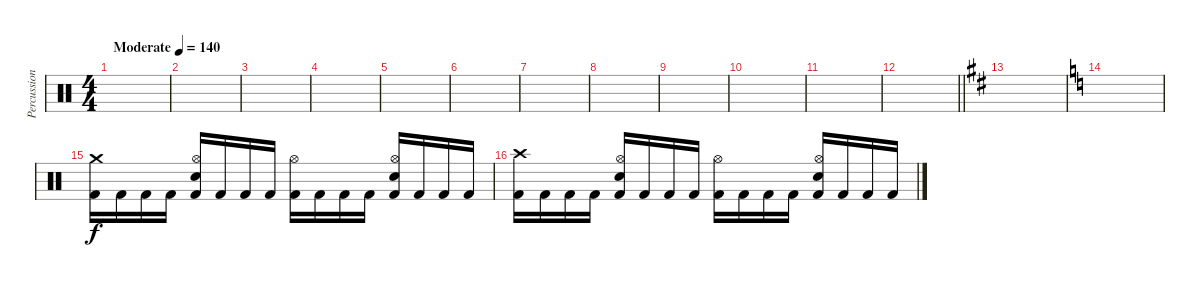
\track ("Percussion" "Percussion") {instrument percussion}
\staff {score}
\articulation defaults
\ts (4 4)
\tempo (140 "Moderate")
\clef neutral
\ks c
|
|
|
|
|
|
|
|
|
|
|
\barLineRight lightlight
|
\ks d
|
\ks c
|
("Crash medium (hit)" "Kick (hit) 2").16 "Kick (hit) 2".16 "Kick (hit) 2".16 "Kick (hit) 2".16 ("Hi-Hat (open)" "Electric Snare (hit)" "Kick (hit) 2").16 "Kick (hit) 2".16 "Kick (hit) 2".16 "Kick (hit) 2".16 ("Hi-Hat (open)" "Kick (hit) 2").16 "Kick (hit) 2".16 "Kick (hit) 2".16 "Kick (hit) 2".16 ("Hi-Hat (open)" "Electric Snare (hit)" "Kick (hit) 2").16 "Kick (hit) 2".16 "Kick (hit) 2".16 "Kick (hit) 2".16 |
("Crash high (hit)" "Kick (hit) 2").16 "Kick (hit) 2".16 "Kick (hit) 2".16 "Kick (hit) 2".16 ("Hi-Hat (open)" "Electric Snare (hit)" "Kick (hit) 2").16 "Kick (hit) 2".16 "Kick (hit) 2".16 "Kick (hit) 2".16 ("Hi-Hat (open)" "Kick (hit) 2").16 "Kick (hit) 2".16 "Kick (hit) 2".16 "Kick (hit) 2".16 ("Hi-Hat (open)" "Electric Snare (hit)" "Kick (hit) 2").16 "Kick (hit) 2".16 "Kick (hit) 2".16 "Kick (hit) 2".16
